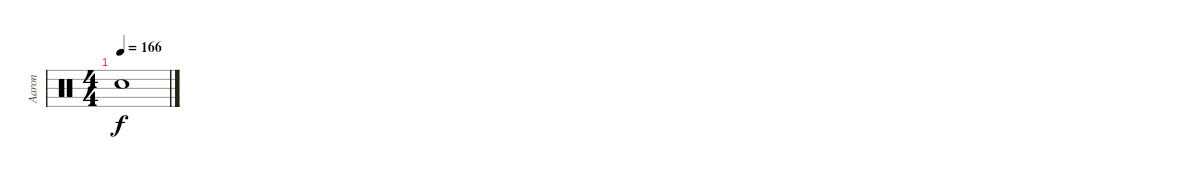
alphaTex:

\track ("Aaron" "Aaron") {instrument percussion}
\staff {score}
\articulation defaults
\ts (4 4)
\tempo 166
\clef neutral
\ks c "Snare (hit) 2".1{dy f}
